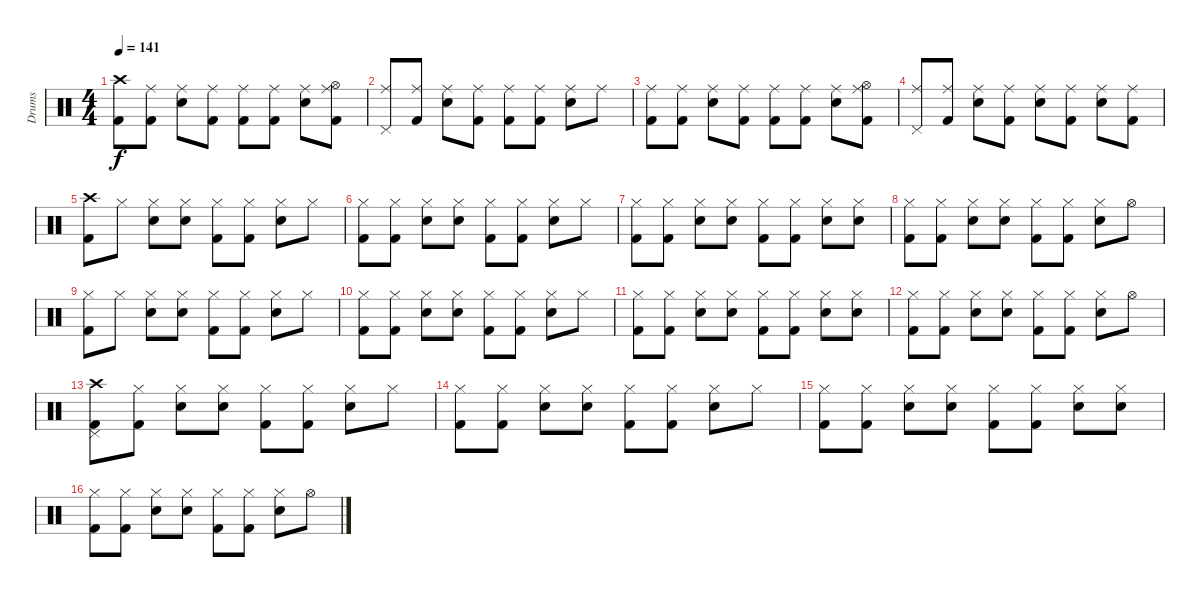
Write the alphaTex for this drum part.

\track ("Drums" "Drums") {instrument percussion}
\staff {score}
\articulation defaults
\ts (4 4)
\tempo 141
\clef neutral
\ks c
("Crash high (hit)" "Kick (hit) 2").8{dy f} ("Ride (middle)" "Kick (hit) 2").8 ("Ride (middle)" "Electric Snare (hit)").8 ("Ride (middle)" "Kick (hit) 2").8 ("Ride (middle)" "Kick (hit) 2").8 ("Ride (middle)" "Kick (hit) 2").8 ("Ride (middle)" "Electric Snare (hit)").8 ("Ride (middle)" "Hi-Hat (open)" "Kick (hit) 2").8 |
("Ride (middle)" "Pedal Hi-Hat (hit)").8 ("Ride (middle)" "Kick (hit) 2").8 ("Ride (middle)" "Electric Snare (hit)").8 ("Ride (middle)" "Kick (hit) 2").8 ("Ride (middle)" "Kick (hit) 2").8 ("Ride (middle)" "Kick (hit) 2").8 ("Ride (middle)" "Electric Snare (hit)").8 "Ride (middle)".8 |
("Ride (middle)" "Kick (hit) 2").8 ("Ride (middle)" "Kick (hit) 2").8 ("Ride (middle)" "Electric Snare (hit)").8 ("Ride (middle)" "Kick (hit) 2").8 ("Ride (middle)" "Kick (hit) 2").8 ("Ride (middle)" "Kick (hit) 2").8 ("Ride (middle)" "Electric Snare (hit)").8 ("Ride (middle)" "Hi-Hat (open)" "Kick (hit) 2").8 |
("Ride (middle)" "Pedal Hi-Hat (hit)").8 ("Ride (middle)" "Kick (hit) 2").8 ("Ride (middle)" "Electric Snare (hit)").8 ("Ride (middle)" "Kick (hit) 2").8 ("Ride (middle)" "Electric Snare (hit)").8 ("Ride (middle)" "Kick (hit) 2").8 ("Ride (middle)" "Electric Snare (hit)").8 ("Ride (middle)" "Kick (hit) 2").8 |
("Crash high (hit)" "Kick (hit) 2").8 "Hi-Hat (closed)".8 ("Hi-Hat (closed)" "Electric Snare (hit)").8 ("Hi-Hat (closed)" "Electric Snare (hit)").8 ("Hi-Hat (closed)" "Kick (hit) 2").8 ("Hi-Hat (closed)" "Kick (hit) 2").8 ("Hi-Hat (closed)" "Electric Snare (hit)").8 "Hi-Hat (closed)".8 |
("Hi-Hat (closed)" "Kick (hit) 2").8 ("Hi-Hat (closed)" "Kick (hit) 2").8 ("Hi-Hat (closed)" "Electric Snare (hit)").8 ("Hi-Hat (closed)" "Electric Snare (hit)").8 ("Hi-Hat (closed)" "Kick (hit) 2").8 ("Hi-Hat (closed)" "Kick (hit) 2").8 ("Hi-Hat (closed)" "Electric Snare (hit)").8 "Hi-Hat (closed)".8 |
("Hi-Hat (closed)" "Kick (hit) 2").8 ("Hi-Hat (closed)" "Kick (hit) 2").8 ("Hi-Hat (closed)" "Electric Snare (hit)").8 ("Hi-Hat (closed)" "Electric Snare (hit)").8 ("Hi-Hat (closed)" "Kick (hit) 2").8 ("Hi-Hat (closed)" "Kick (hit) 2").8 ("Hi-Hat (closed)" "Electric Snare (hit)").8 ("Hi-Hat (closed)" "Electric Snare (hit)").8 |
("Hi-Hat (closed)" "Kick (hit) 2").8 ("Hi-Hat (closed)" "Kick (hit) 2").8 ("Hi-Hat (closed)" "Electric Snare (hit)").8 ("Hi-Hat (closed)" "Electric Snare (hit)").8 ("Hi-Hat (closed)" "Kick (hit) 2").8 ("Hi-Hat (closed)" "Kick (hit) 2").8 ("Hi-Hat (closed)" "Electric Snare (hit)").8 "Hi-Hat (open)".8 |
("Hi-Hat (closed)" "Kick (hit) 2").8 "Hi-Hat (closed)".8 ("Hi-Hat (closed)" "Electric Snare (hit)").8 ("Hi-Hat (closed)" "Electric Snare (hit)").8 ("Hi-Hat (closed)" "Kick (hit) 2").8 ("Hi-Hat (closed)" "Kick (hit) 2").8 ("Hi-Hat (closed)" "Electric Snare (hit)").8 "Hi-Hat (closed)".8 |
("Hi-Hat (closed)" "Kick (hit) 2").8 ("Hi-Hat (closed)" "Kick (hit) 2").8 ("Hi-Hat (closed)" "Electric Snare (hit)").8 ("Hi-Hat (closed)" "Electric Snare (hit)").8 ("Hi-Hat (closed)" "Kick (hit) 2").8 ("Hi-Hat (closed)" "Kick (hit) 2").8 ("Hi-Hat (closed)" "Electric Snare (hit)").8 "Hi-Hat (closed)".8 |
("Hi-Hat (closed)" "Kick (hit) 2").8 ("Hi-Hat (closed)" "Kick (hit) 2").8 ("Hi-Hat (closed)" "Electric Snare (hit)").8 ("Hi-Hat (closed)" "Electric Snare (hit)").8 ("Hi-Hat (closed)" "Kick (hit) 2").8 ("Hi-Hat (closed)" "Kick (hit) 2").8 ("Hi-Hat (closed)" "Electric Snare (hit)").8 ("Hi-Hat (closed)" "Electric Snare (hit)").8 |
("Hi-Hat (closed)" "Kick (hit) 2").8 ("Hi-Hat (closed)" "Kick (hit) 2").8 ("Hi-Hat (closed)" "Electric Snare (hit)").8 ("Hi-Hat (closed)" "Electric Snare (hit)").8 ("Hi-Hat (closed)" "Kick (hit) 2").8 ("Hi-Hat (closed)" "Kick (hit) 2").8 ("Hi-Hat (closed)" "Electric Snare (hit)").8 "Hi-Hat (open)".8 |
("Crash high (hit)" "Pedal Hi-Hat (hit)" "Kick (hit) 2").8 ("Hi-Hat (closed)" "Kick (hit) 2").8 ("Hi-Hat (closed)" "Electric Snare (hit)").8 ("Hi-Hat (closed)" "Electric Snare (hit)").8 ("Hi-Hat (closed)" "Kick (hit) 2").8 ("Hi-Hat (closed)" "Kick (hit) 2").8 ("Hi-Hat (closed)" "Electric Snare (hit)").8 "Hi-Hat (closed)".8 |
("Hi-Hat (closed)" "Kick (hit) 2").8 ("Hi-Hat (closed)" "Kick (hit) 2").8 ("Hi-Hat (closed)" "Electric Snare (hit)").8 ("Hi-Hat (closed)" "Electric Snare (hit)").8 ("Hi-Hat (closed)" "Kick (hit) 2").8 ("Hi-Hat (closed)" "Kick (hit) 2").8 ("Hi-Hat (closed)" "Electric Snare (hit)").8 "Hi-Hat (closed)".8 |
("Hi-Hat (closed)" "Kick (hit) 2").8 ("Hi-Hat (closed)" "Kick (hit) 2").8 ("Hi-Hat (closed)" "Electric Snare (hit)").8 ("Hi-Hat (closed)" "Electric Snare (hit)").8 ("Hi-Hat (closed)" "Kick (hit) 2").8 ("Hi-Hat (closed)" "Kick (hit) 2").8 ("Hi-Hat (closed)" "Electric Snare (hit)").8 ("Hi-Hat (closed)" "Electric Snare (hit)").8 |
("Hi-Hat (closed)" "Kick (hit) 2").8 ("Hi-Hat (closed)" "Kick (hit) 2").8 ("Hi-Hat (closed)" "Electric Snare (hit)").8 ("Hi-Hat (closed)" "Electric Snare (hit)").8 ("Hi-Hat (closed)" "Kick (hit) 2").8 ("Hi-Hat (closed)" "Kick (hit) 2").8 ("Hi-Hat (closed)" "Electric Snare (hit)").8 "Hi-Hat (open)".8
